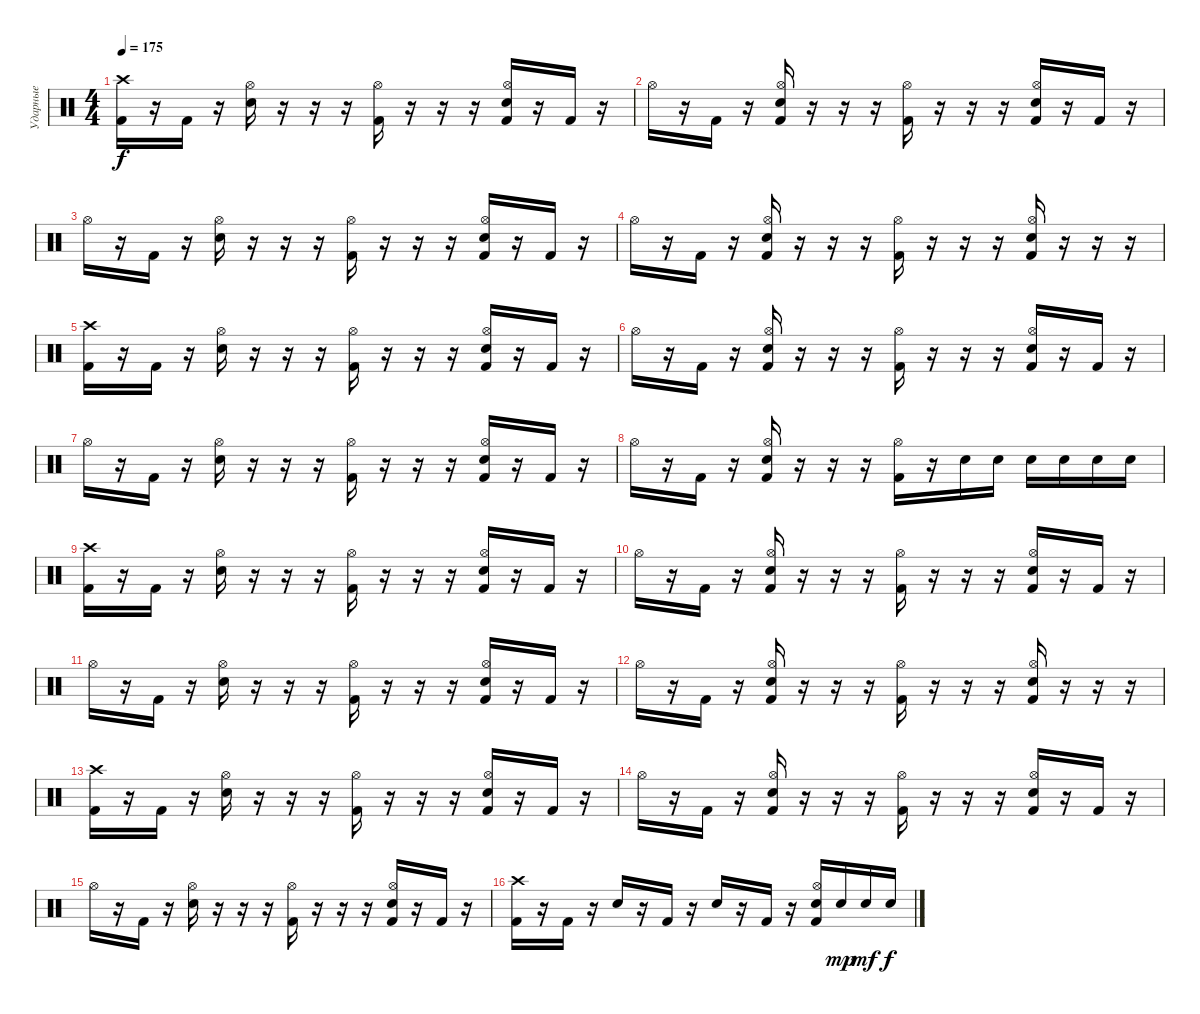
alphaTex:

\track ("Ударные" "Ударные") {instrument percussion}
\staff {score}
\articulation defaults
\ts (4 4)
\tempo 175
\clef neutral
\ks c
("Crash high (hit)" "Kick (hit) 2").16{dy f} r.16 "Kick (hit) 2".16 r.16 ("Hi-Hat (open)" "Electric Snare (hit)").16 r.16 r.16 r.16 ("Hi-Hat (open)" "Kick (hit) 2").16 r.16 r.16 r.16 ("Hi-Hat (open)" "Electric Snare (hit)" "Kick (hit) 2").16 r.16 "Kick (hit) 2".16 r.16 |
"Hi-Hat (open)".16 r.16 "Kick (hit) 2".16 r.16 ("Hi-Hat (open)" "Electric Snare (hit)" "Kick (hit) 2").16 r.16 r.16 r.16 ("Hi-Hat (open)" "Kick (hit) 2").16 r.16 r.16 r.16 ("Hi-Hat (open)" "Electric Snare (hit)" "Kick (hit) 2").16 r.16 "Kick (hit) 2".16 r.16 |
"Hi-Hat (open)".16 r.16 "Kick (hit) 2".16 r.16 ("Hi-Hat (open)" "Electric Snare (hit)").16 r.16 r.16 r.16 ("Hi-Hat (open)" "Kick (hit) 2").16 r.16 r.16 r.16 ("Hi-Hat (open)" "Electric Snare (hit)" "Kick (hit) 2").16 r.16 "Kick (hit) 2".16 r.16 |
"Hi-Hat (open)".16 r.16 "Kick (hit) 2".16 r.16 ("Hi-Hat (open)" "Electric Snare (hit)" "Kick (hit) 2").16 r.16 r.16 r.16 ("Hi-Hat (open)" "Kick (hit) 2").16 r.16 r.16 r.16 ("Hi-Hat (open)" "Electric Snare (hit)" "Kick (hit) 2").16 r.16 r.16 r.16 |
("Crash high (hit)" "Kick (hit) 2").16 r.16 "Kick (hit) 2".16 r.16 ("Hi-Hat (open)" "Electric Snare (hit)").16 r.16 r.16 r.16 ("Hi-Hat (open)" "Kick (hit) 2").16 r.16 r.16 r.16 ("Hi-Hat (open)" "Electric Snare (hit)" "Kick (hit) 2").16 r.16 "Kick (hit) 2".16 r.16 |
"Hi-Hat (open)".16 r.16 "Kick (hit) 2".16 r.16 ("Hi-Hat (open)" "Electric Snare (hit)" "Kick (hit) 2").16 r.16 r.16 r.16 ("Hi-Hat (open)" "Kick (hit) 2").16 r.16 r.16 r.16 ("Hi-Hat (open)" "Electric Snare (hit)" "Kick (hit) 2").16 r.16 "Kick (hit) 2".16 r.16 |
"Hi-Hat (open)".16 r.16 "Kick (hit) 2".16 r.16 ("Hi-Hat (open)" "Electric Snare (hit)").16 r.16 r.16 r.16 ("Hi-Hat (open)" "Kick (hit) 2").16 r.16 r.16 r.16 ("Hi-Hat (open)" "Electric Snare (hit)" "Kick (hit) 2").16 r.16 "Kick (hit) 2".16 r.16 |
"Hi-Hat (open)".16 r.16 "Kick (hit) 2".16 r.16 ("Hi-Hat (open)" "Electric Snare (hit)" "Kick (hit) 2").16 r.16 r.16 r.16 ("Hi-Hat (open)" "Kick (hit) 2").16 r.16 "Electric Snare (hit)".16 "Electric Snare (hit)".16 "Electric Snare (hit)".16 "Electric Snare (hit)".16 "Electric Snare (hit)".16 "Electric Snare (hit)".16 |
("Crash high (hit)" "Kick (hit) 2").16 r.16 "Kick (hit) 2".16 r.16 ("Hi-Hat (open)" "Electric Snare (hit)").16 r.16 r.16 r.16 ("Hi-Hat (open)" "Kick (hit) 2").16 r.16 r.16 r.16 ("Hi-Hat (open)" "Electric Snare (hit)" "Kick (hit) 2").16 r.16 "Kick (hit) 2".16 r.16 |
"Hi-Hat (open)".16 r.16 "Kick (hit) 2".16 r.16 ("Hi-Hat (open)" "Electric Snare (hit)" "Kick (hit) 2").16 r.16 r.16 r.16 ("Hi-Hat (open)" "Kick (hit) 2").16 r.16 r.16 r.16 ("Hi-Hat (open)" "Electric Snare (hit)" "Kick (hit) 2").16 r.16 "Kick (hit) 2".16 r.16 |
"Hi-Hat (open)".16 r.16 "Kick (hit) 2".16 r.16 ("Hi-Hat (open)" "Electric Snare (hit)").16 r.16 r.16 r.16 ("Hi-Hat (open)" "Kick (hit) 2").16 r.16 r.16 r.16 ("Hi-Hat (open)" "Electric Snare (hit)" "Kick (hit) 2").16 r.16 "Kick (hit) 2".16 r.16 |
"Hi-Hat (open)".16 r.16 "Kick (hit) 2".16 r.16 ("Hi-Hat (open)" "Electric Snare (hit)" "Kick (hit) 2").16 r.16 r.16 r.16 ("Hi-Hat (open)" "Kick (hit) 2").16 r.16 r.16 r.16 ("Hi-Hat (open)" "Electric Snare (hit)" "Kick (hit) 2").16 r.16 r.16 r.16 |
("Crash high (hit)" "Kick (hit) 2").16 r.16 "Kick (hit) 2".16 r.16 ("Hi-Hat (open)" "Electric Snare (hit)").16 r.16 r.16 r.16 ("Hi-Hat (open)" "Kick (hit) 2").16 r.16 r.16 r.16 ("Hi-Hat (open)" "Electric Snare (hit)" "Kick (hit) 2").16 r.16 "Kick (hit) 2".16 r.16 |
"Hi-Hat (open)".16 r.16 "Kick (hit) 2".16 r.16 ("Hi-Hat (open)" "Electric Snare (hit)" "Kick (hit) 2").16 r.16 r.16 r.16 ("Hi-Hat (open)" "Kick (hit) 2").16 r.16 r.16 r.16 ("Hi-Hat (open)" "Electric Snare (hit)" "Kick (hit) 2").16 r.16 "Kick (hit) 2".16 r.16 |
"Hi-Hat (open)".16 r.16 "Kick (hit) 2".16 r.16 ("Hi-Hat (open)" "Electric Snare (hit)").16 r.16 r.16 r.16 ("Hi-Hat (open)" "Kick (hit) 2").16 r.16 r.16 r.16 ("Hi-Hat (open)" "Electric Snare (hit)" "Kick (hit) 2").16 r.16 "Kick (hit) 2".16 r.16 |
("Crash high (hit)" "Kick (hit) 2").16 r.16 "Kick (hit) 2".16 r.16 "Electric Snare (hit)".16 r.16 "Kick (hit) 2".16 r.16 "Electric Snare (hit)".16 r.16 "Kick (hit) 2".16 r.16 ("Hi-Hat (open)" "Electric Snare (hit)" "Kick (hit) 2").16 "Electric Snare (hit)".16{dy mp} "Electric Snare (hit)".16{dy mf} "Electric Snare (hit)".16{dy f}
